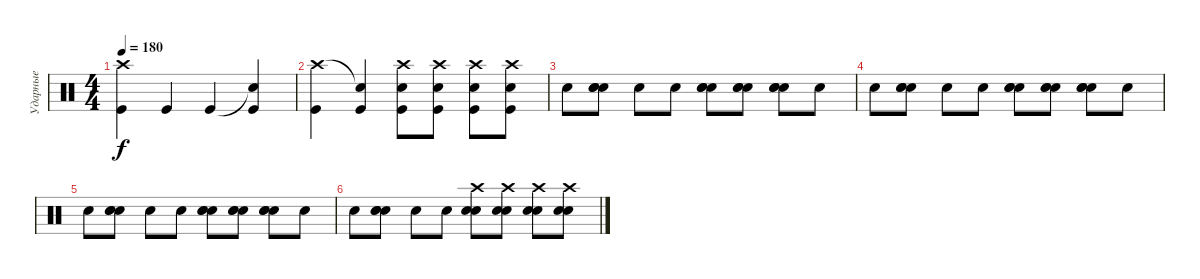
\track ("Ударные" "Ударные") {instrument percussion}
\staff {score}
\articulation defaults
\ts (4 4)
\tempo 180
\clef neutral
\ks c
("Crash high (hit)" "Kick (hit)").4{dy f} "Kick (hit)".4 "Kick (hit)".4 ("Snare (hit)"{t} "Kick (hit)").4 |
("Crash high (hit)" "Kick (hit)").4 ("Snare (hit)"{t} "Kick (hit)").4 ("Crash high (hit)" "Electric Snare (hit)" "Kick (hit)").8 ("Crash high (hit)" "Electric Snare (hit)" "Kick (hit)").8 ("Crash high (hit)" "Electric Snare (hit)" "Kick (hit)").8 ("Crash high (hit)" "Electric Snare (hit)" "Kick (hit)").8 |
"Electric Snare (hit)".8 ("Snare (hit) 2" "Electric Snare (hit)" "Electric Snare (hit)").8 "Electric Snare (hit)".8 "Electric Snare (hit)".8 ("Snare (hit) 2" "Electric Snare (hit)" "Electric Snare (hit)").8 ("Snare (hit) 2" "Electric Snare (hit)" "Electric Snare (hit)").8 ("Snare (hit) 2" "Electric Snare (hit)" "Electric Snare (hit)").8 "Electric Snare (hit)".8 |
"Electric Snare (hit)".8 ("Snare (hit) 2" "Electric Snare (hit)" "Electric Snare (hit)").8 "Electric Snare (hit)".8 "Electric Snare (hit)".8 ("Snare (hit) 2" "Electric Snare (hit)" "Electric Snare (hit)").8 ("Snare (hit) 2" "Electric Snare (hit)" "Electric Snare (hit)").8 ("Snare (hit) 2" "Electric Snare (hit)" "Electric Snare (hit)").8 "Electric Snare (hit)".8 |
"Electric Snare (hit)".8 ("Snare (hit) 2" "Electric Snare (hit)" "Electric Snare (hit)").8 "Electric Snare (hit)".8 "Electric Snare (hit)".8 ("Snare (hit) 2" "Electric Snare (hit)" "Electric Snare (hit)").8 ("Snare (hit) 2" "Electric Snare (hit)" "Electric Snare (hit)").8 ("Snare (hit) 2" "Electric Snare (hit)" "Electric Snare (hit)").8 "Electric Snare (hit)".8 |
"Electric Snare (hit)".8 ("Snare (hit) 2" "Electric Snare (hit)" "Electric Snare (hit)").8 "Electric Snare (hit)".8 "Electric Snare (hit)".8 ("Crash high (hit)" "Electric Snare (hit)" "Electric Snare (hit)").8 ("Crash high (hit)" "Electric Snare (hit)" "Electric Snare (hit)").8 ("Crash high (hit)" "Electric Snare (hit)" "Electric Snare (hit)").8 ("Crash high (hit)" "Electric Snare (hit)" "Electric Snare (hit)").8
